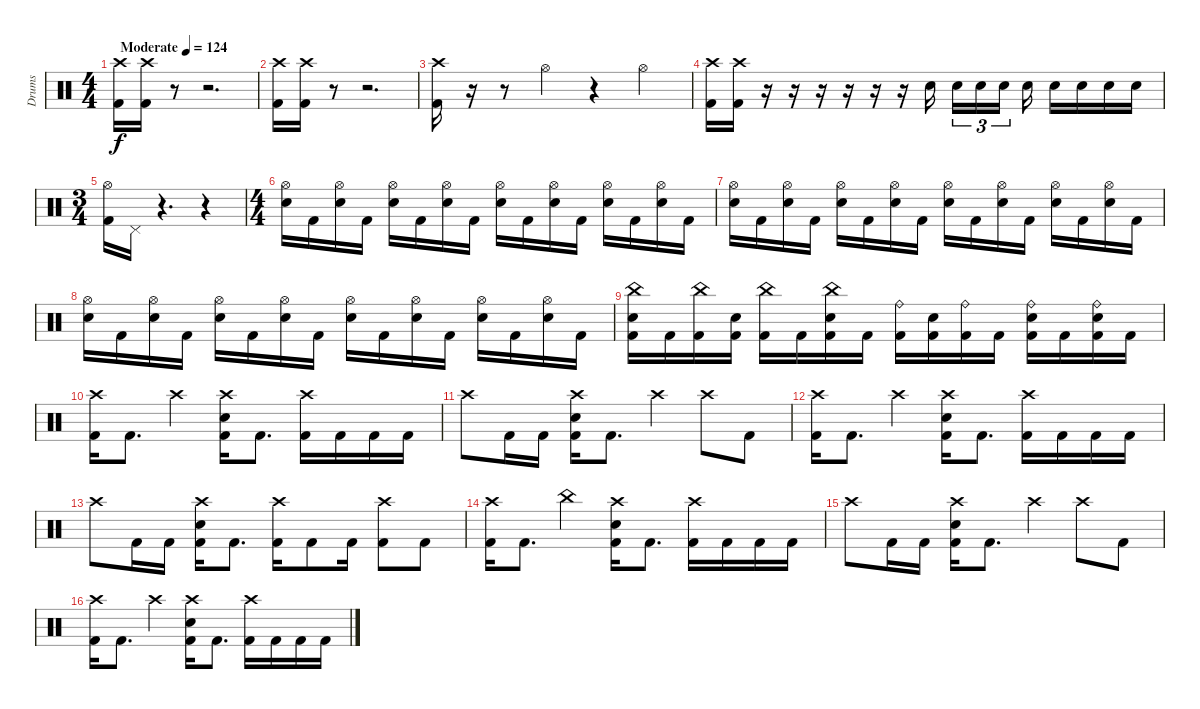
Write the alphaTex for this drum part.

\track ("Drums" "Drums") {instrument percussion}
\staff {score}
\articulation defaults
\ts (4 4)
\tempo (124 "Moderate")
\clef neutral
\ks c
("Crash high (hit)" "Kick (hit) 2").16{dy f} ("Crash high (hit)" "Kick (hit) 2").16 r.8 r.2{d} |
("Crash high (hit)" "Kick (hit) 2").16 ("Crash high (hit)" "Kick (hit) 2").16 r.8 r.2{d} |
("Crash high (hit)" "Kick (hit) 2").16 r.16 r.8 "Hi-Hat (open)".4 r.4 "Hi-Hat (open)".4 |
("Crash high (hit)" "Kick (hit) 2").16 ("Crash high (hit)" "Kick (hit) 2").16 r.16 r.16 r.16 r.16 r.16 r.16 "Snare (hit) 2".16{beam splitsecondary} "Snare (hit) 2".16{tu (3 2)} "Snare (hit) 2".16{tu (3 2)} "Snare (hit) 2".16{tu (3 2) beam splitsecondary} "Snare (hit) 2".16 "Snare (hit) 2".16 "Snare (hit) 2".16 "Snare (hit) 2".16 "Snare (hit) 2".16 |
\ts (3 4)
("Hi-Hat (open)" "Kick (hit) 2").16 "Pedal Hi-Hat (hit)".16 r.4{d} r.4 |
\ts (4 4)
("Hi-Hat (open)" "Snare (hit) 2").16 "Kick (hit) 2".16 ("Hi-Hat (open)" "Snare (hit) 2").16 "Kick (hit) 2".16 ("Hi-Hat (open)" "Snare (hit) 2").16 "Kick (hit) 2".16 ("Hi-Hat (open)" "Snare (hit) 2").16 "Kick (hit) 2".16 ("Hi-Hat (open)" "Snare (hit) 2").16 "Kick (hit) 2".16 ("Hi-Hat (open)" "Snare (hit) 2").16 "Kick (hit) 2".16 ("Hi-Hat (open)" "Snare (hit) 2").16 "Kick (hit) 2".16 ("Hi-Hat (open)" "Snare (hit) 2").16 "Kick (hit) 2".16 |
("Hi-Hat (open)" "Snare (hit) 2").16 "Kick (hit) 2".16 ("Hi-Hat (open)" "Snare (hit) 2").16 "Kick (hit) 2".16 ("Hi-Hat (open)" "Snare (hit) 2").16 "Kick (hit) 2".16 ("Hi-Hat (open)" "Snare (hit) 2").16 "Kick (hit) 2".16 ("Hi-Hat (open)" "Snare (hit) 2").16 "Kick (hit) 2".16 ("Hi-Hat (open)" "Snare (hit) 2").16 "Kick (hit) 2".16 ("Hi-Hat (open)" "Snare (hit) 2").16 "Kick (hit) 2".16 ("Hi-Hat (open)" "Snare (hit) 2").16 "Kick (hit) 2".16 |
("Hi-Hat (open)" "Snare (hit) 2").16 "Kick (hit) 2".16 ("Hi-Hat (open)" "Snare (hit) 2").16 "Kick (hit) 2".16 ("Hi-Hat (open)" "Snare (hit) 2").16 "Kick (hit) 2".16 ("Hi-Hat (open)" "Snare (hit) 2").16 "Kick (hit) 2".16 ("Hi-Hat (open)" "Snare (hit) 2").16 "Kick (hit) 2".16 ("Hi-Hat (open)" "Snare (hit) 2").16 "Kick (hit) 2".16 ("Hi-Hat (open)" "Snare (hit) 2").16 "Kick (hit) 2".16 ("Hi-Hat (open)" "Snare (hit) 2").16 "Kick (hit) 2".16 |
("China (hit)" "Snare (hit) 2" "Kick (hit) 2").16 "Kick (hit) 2".16 ("China (hit)" "Kick (hit) 2").16 ("Snare (hit) 2" "Kick (hit) 2").16 ("China (hit)" "Kick (hit) 2").16 "Kick (hit) 2".16 ("China (hit)" "Snare (hit) 2" "Kick (hit) 2").16 "Kick (hit) 2".16 ("Ride (bell)" "Kick (hit) 2").16 ("Snare (hit) 2" "Kick (hit) 2").16 ("Ride (bell)" "Kick (hit) 2").16 "Kick (hit) 2".16 ("Ride (bell)" "Snare (hit) 2" "Kick (hit) 2").16 "Kick (hit) 2".16 ("Ride (bell)" "Snare (hit) 2" "Kick (hit) 2").16 "Kick (hit) 2".16 |
("Crash high (hit)" "Kick (hit) 2").16 "Kick (hit) 2".8{d} "Crash high (hit)".4 ("Crash high (hit)" "Snare (hit) 2" "Kick (hit) 2").16 "Kick (hit) 2".8{d} ("Crash high (hit)" "Kick (hit) 2").16 "Kick (hit) 2".16 "Kick (hit) 2".16 "Kick (hit) 2".16 |
"Crash high (hit)".8 "Kick (hit) 2".16 "Kick (hit) 2".16 ("Crash high (hit)" "Snare (hit) 2" "Kick (hit) 2").16 "Kick (hit) 2".8{d} "Crash high (hit)".4 "Crash high (hit)".8 "Kick (hit) 2".8 |
("Crash high (hit)" "Kick (hit) 2").16 "Kick (hit) 2".8{d} "Crash high (hit)".4 ("Crash high (hit)" "Snare (hit) 2" "Kick (hit) 2").16 "Kick (hit) 2".8{d} ("Crash high (hit)" "Kick (hit) 2").16 "Kick (hit) 2".16 "Kick (hit) 2".16 "Kick (hit) 2".16 |
"Crash high (hit)".8 "Kick (hit) 2".16 "Kick (hit) 2".16 ("Crash high (hit)" "Snare (hit) 2" "Kick (hit) 2").16 "Kick (hit) 2".8{d} ("Crash high (hit)" "Kick (hit) 2").16 "Kick (hit) 2".8 "Kick (hit) 2".16 ("Crash high (hit)" "Kick (hit) 2").8 "Kick (hit) 2".8 |
("Crash high (hit)" "Kick (hit) 2").16 "Kick (hit) 2".8{d} "China (hit)".4 ("Crash high (hit)" "Snare (hit) 2" "Kick (hit) 2").16 "Kick (hit) 2".8{d} ("Crash high (hit)" "Kick (hit) 2").16 "Kick (hit) 2".16 "Kick (hit) 2".16 "Kick (hit) 2".16 |
"Crash high (hit)".8 "Kick (hit) 2".16 "Kick (hit) 2".16 ("Crash high (hit)" "Snare (hit) 2" "Kick (hit) 2").16 "Kick (hit) 2".8{d} "Crash high (hit)".4 "Crash high (hit)".8 "Kick (hit) 2".8 |
("Crash high (hit)" "Kick (hit) 2").16 "Kick (hit) 2".8{d} "Crash high (hit)".4 ("Crash high (hit)" "Snare (hit) 2" "Kick (hit) 2").16 "Kick (hit) 2".8{d} ("Crash high (hit)" "Kick (hit) 2").16 "Kick (hit) 2".16 "Kick (hit) 2".16 "Kick (hit) 2".16
